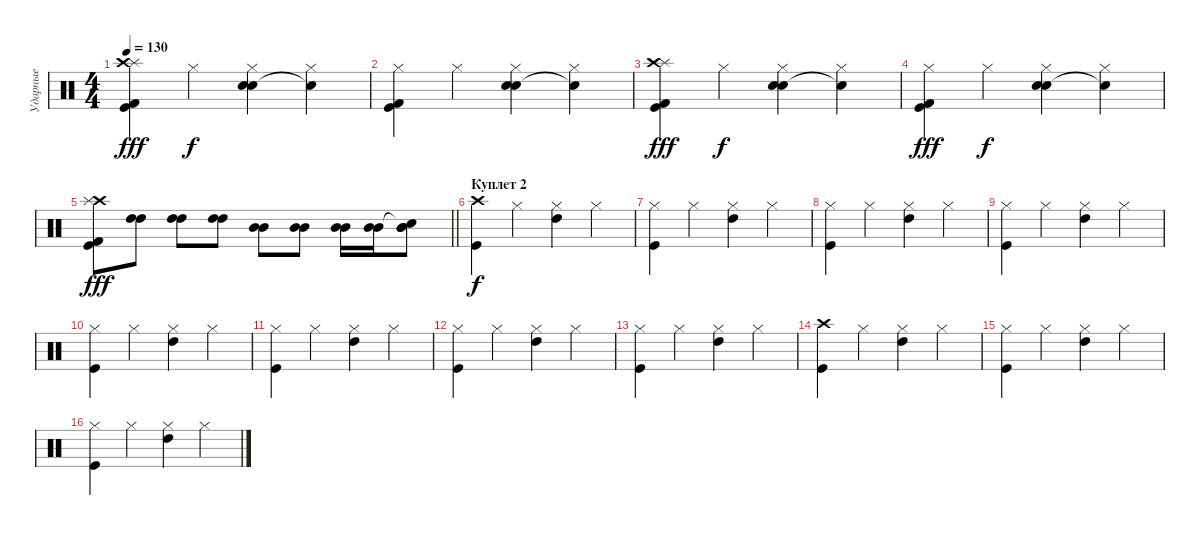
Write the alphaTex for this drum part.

\track ("Ударные" "Ударные") {instrument percussion}
\staff {score}
\articulation defaults
\ts (4 4)
\tempo 130
\clef neutral
\ks c
("Splash (hit)" "Crash high (hit)" "Kick (hit)" "Kick (hit) 2").4{dy fff} "Hi-Hat (closed)".4{dy f} ("Hi-Hat (closed)" "Electric Snare (hit)" "Snare (hit) 2").4 ("Hi-Hat (closed)" "Snare (hit)"{t}).4 |
("Hi-Hat (closed)" "Kick (hit)" "Kick (hit) 2").4 "Hi-Hat (closed)".4 ("Hi-Hat (closed)" "Electric Snare (hit)" "Snare (hit) 2").4 ("Hi-Hat (closed)" "Snare (hit)"{t}).4 |
("Splash (hit)" "Crash high (hit)" "Kick (hit)" "Kick (hit) 2").4{dy fff} "Hi-Hat (closed)".4{dy f} ("Hi-Hat (closed)" "Electric Snare (hit)" "Snare (hit) 2").4 ("Hi-Hat (closed)" "Snare (hit)"{t}).4 |
("Hi-Hat (closed)" "Kick (hit)" "Kick (hit) 2").4{dy fff} "Hi-Hat (closed)".4{dy f} ("Hi-Hat (closed)" "Electric Snare (hit)" "Snare (hit) 2").4 ("Hi-Hat (closed)" "Snare (hit)"{t}).4 |
\barLineRight lightlight
("Crash high (hit)" "Splash (hit)" "Kick (hit)" "Kick (hit) 2").8{dy fff} ("High Tom (hit)" "High Tom (hit)").8 ("High Tom (hit)" "High Tom (hit)").8 ("High Tom (hit)" "High Tom (hit)").8 ("Mid Tom (hit)" "Mid Tom (hit)").8 ("Mid Tom (hit)" "Mid Tom (hit)").8 ("Mid Tom (hit)" "Mid Tom (hit)").16 ("Mid Tom (hit)" "Mid Tom (hit)").16 ("Snare (hit)"{t} "Mid Tom (hit)" "Mid Tom (hit)").8 |
\section ("" "Куплет 2")
("Crash high (hit)" "Kick (hit)").4{dy f} "Hi-Hat (closed)".4 ("Hi-Hat (closed)" "High Tom (hit)").4 "Hi-Hat (closed)".4 |
("Hi-Hat (closed)" "Kick (hit)").4 "Hi-Hat (closed)".4 ("Hi-Hat (closed)" "High Tom (hit)").4 "Hi-Hat (closed)".4 |
("Hi-Hat (closed)" "Kick (hit)").4 "Hi-Hat (closed)".4 ("Hi-Hat (closed)" "High Tom (hit)").4 "Hi-Hat (closed)".4 |
("Hi-Hat (closed)" "Kick (hit)").4 "Hi-Hat (closed)".4 ("Hi-Hat (closed)" "High Tom (hit)").4 "Hi-Hat (closed)".4 |
("Hi-Hat (closed)" "Kick (hit)").4 "Hi-Hat (closed)".4 ("Hi-Hat (closed)" "High Tom (hit)").4 "Hi-Hat (closed)".4 |
("Hi-Hat (closed)" "Kick (hit)").4 "Hi-Hat (closed)".4 ("Hi-Hat (closed)" "High Tom (hit)").4 "Hi-Hat (closed)".4 |
("Hi-Hat (closed)" "Kick (hit)").4 "Hi-Hat (closed)".4 ("Hi-Hat (closed)" "High Tom (hit)").4 "Hi-Hat (closed)".4 |
("Hi-Hat (closed)" "Kick (hit)").4 "Hi-Hat (closed)".4 ("Hi-Hat (closed)" "High Tom (hit)").4 "Hi-Hat (closed)".4 |
("Crash high (hit)" "Kick (hit)").4 "Hi-Hat (closed)".4 ("Hi-Hat (closed)" "High Tom (hit)").4 "Hi-Hat (closed)".4 |
("Hi-Hat (closed)" "Kick (hit)").4 "Hi-Hat (closed)".4 ("Hi-Hat (closed)" "High Tom (hit)").4 "Hi-Hat (closed)".4 |
("Hi-Hat (closed)" "Kick (hit)").4 "Hi-Hat (closed)".4 ("Hi-Hat (closed)" "High Tom (hit)").4 "Hi-Hat (closed)".4
